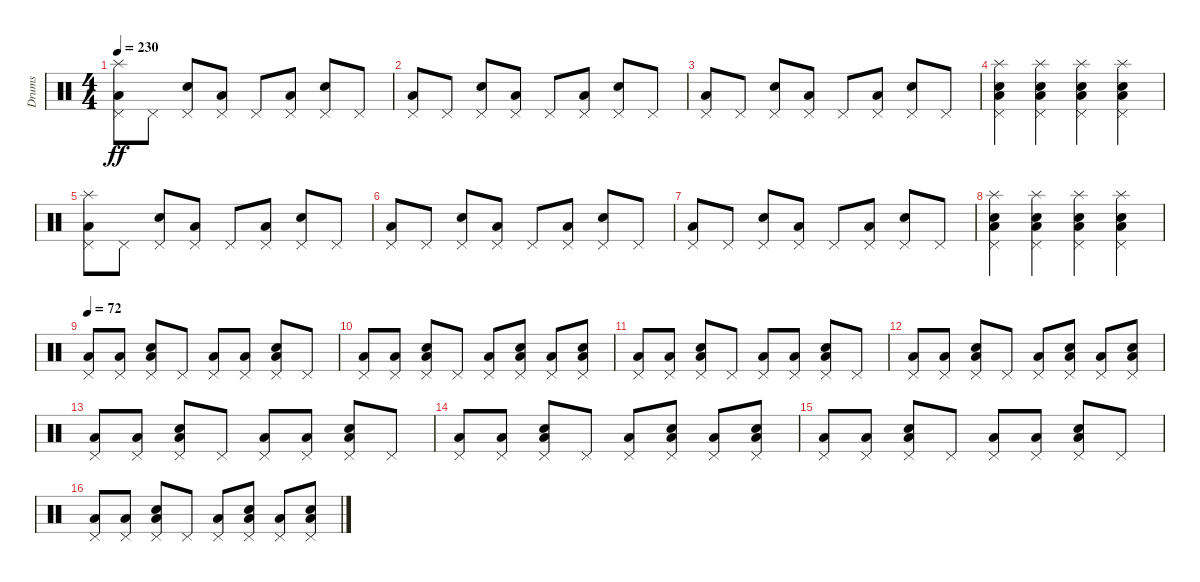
\track ("Drums" "Drums") {instrument percussion}
\staff {score}
\articulation defaults
\ts (4 4)
\tempo 230
\clef neutral
\ks c
("Low Floor Tom (hit)" "Pedal Hi-Hat (hit)" "Splash (hit)").8{dy ff} "Pedal Hi-Hat (hit)".8 ("Electric Snare (hit)" "Pedal Hi-Hat (hit)").8 ("Low Floor Tom (hit)" "Pedal Hi-Hat (hit)").8 "Pedal Hi-Hat (hit)".8 ("Low Floor Tom (hit)" "Pedal Hi-Hat (hit)").8 ("Electric Snare (hit)" "Pedal Hi-Hat (hit)").8 "Pedal Hi-Hat (hit)".8 |
("Low Floor Tom (hit)" "Pedal Hi-Hat (hit)").8 "Pedal Hi-Hat (hit)".8 ("Electric Snare (hit)" "Pedal Hi-Hat (hit)").8 ("Low Floor Tom (hit)" "Pedal Hi-Hat (hit)").8 "Pedal Hi-Hat (hit)".8 ("Low Floor Tom (hit)" "Pedal Hi-Hat (hit)").8 ("Electric Snare (hit)" "Pedal Hi-Hat (hit)").8 "Pedal Hi-Hat (hit)".8 |
("Low Floor Tom (hit)" "Pedal Hi-Hat (hit)").8 "Pedal Hi-Hat (hit)".8 ("Electric Snare (hit)" "Pedal Hi-Hat (hit)").8 ("Low Floor Tom (hit)" "Pedal Hi-Hat (hit)").8 "Pedal Hi-Hat (hit)".8 ("Low Floor Tom (hit)" "Pedal Hi-Hat (hit)").8 ("Electric Snare (hit)" "Pedal Hi-Hat (hit)").8 "Pedal Hi-Hat (hit)".8 |
("Electric Snare (hit)" "Low Floor Tom (hit)" "Pedal Hi-Hat (hit)" "Splash (hit)").4 ("Electric Snare (hit)" "Low Floor Tom (hit)" "Pedal Hi-Hat (hit)" "Splash (hit)").4 ("Electric Snare (hit)" "Low Floor Tom (hit)" "Pedal Hi-Hat (hit)" "Splash (hit)").4 ("Electric Snare (hit)" "Low Floor Tom (hit)" "Pedal Hi-Hat (hit)" "Splash (hit)").4 |
("Low Floor Tom (hit)" "Pedal Hi-Hat (hit)" "Splash (hit)").8 "Pedal Hi-Hat (hit)".8 ("Electric Snare (hit)" "Pedal Hi-Hat (hit)").8 ("Low Floor Tom (hit)" "Pedal Hi-Hat (hit)").8 "Pedal Hi-Hat (hit)".8 ("Low Floor Tom (hit)" "Pedal Hi-Hat (hit)").8 ("Electric Snare (hit)" "Pedal Hi-Hat (hit)").8 "Pedal Hi-Hat (hit)".8 |
("Low Floor Tom (hit)" "Pedal Hi-Hat (hit)").8 "Pedal Hi-Hat (hit)".8 ("Electric Snare (hit)" "Pedal Hi-Hat (hit)").8 ("Low Floor Tom (hit)" "Pedal Hi-Hat (hit)").8 "Pedal Hi-Hat (hit)".8 ("Low Floor Tom (hit)" "Pedal Hi-Hat (hit)").8 ("Electric Snare (hit)" "Pedal Hi-Hat (hit)").8 "Pedal Hi-Hat (hit)".8 |
("Low Floor Tom (hit)" "Pedal Hi-Hat (hit)").8 "Pedal Hi-Hat (hit)".8 ("Electric Snare (hit)" "Pedal Hi-Hat (hit)").8 ("Low Floor Tom (hit)" "Pedal Hi-Hat (hit)").8 "Pedal Hi-Hat (hit)".8 ("Low Floor Tom (hit)" "Pedal Hi-Hat (hit)").8 ("Electric Snare (hit)" "Pedal Hi-Hat (hit)").8 "Pedal Hi-Hat (hit)".8 |
("Electric Snare (hit)" "Low Floor Tom (hit)" "Pedal Hi-Hat (hit)" "Splash (hit)").4 ("Electric Snare (hit)" "Low Floor Tom (hit)" "Pedal Hi-Hat (hit)" "Splash (hit)").4 ("Electric Snare (hit)" "Low Floor Tom (hit)" "Pedal Hi-Hat (hit)" "Splash (hit)").4 ("Electric Snare (hit)" "Low Floor Tom (hit)" "Pedal Hi-Hat (hit)" "Splash (hit)").4 |
\tempo 72
("Low Floor Tom (hit)" "Pedal Hi-Hat (hit)").8 ("Low Floor Tom (hit)" "Pedal Hi-Hat (hit)").8 ("Electric Snare (hit)" "Low Floor Tom (hit)" "Pedal Hi-Hat (hit)").8 "Pedal Hi-Hat (hit)".8 ("Low Floor Tom (hit)" "Pedal Hi-Hat (hit)").8 ("Low Floor Tom (hit)" "Pedal Hi-Hat (hit)").8 ("Electric Snare (hit)" "Low Floor Tom (hit)" "Pedal Hi-Hat (hit)").8 "Pedal Hi-Hat (hit)".8 |
("Low Floor Tom (hit)" "Pedal Hi-Hat (hit)").8 ("Low Floor Tom (hit)" "Pedal Hi-Hat (hit)").8 ("Electric Snare (hit)" "Low Floor Tom (hit)" "Pedal Hi-Hat (hit)").8 "Pedal Hi-Hat (hit)".8 ("Low Floor Tom (hit)" "Pedal Hi-Hat (hit)").8 ("Electric Snare (hit)" "Low Floor Tom (hit)" "Pedal Hi-Hat (hit)").8 ("Low Floor Tom (hit)" "Pedal Hi-Hat (hit)").8 ("Electric Snare (hit)" "Low Floor Tom (hit)" "Pedal Hi-Hat (hit)").8 |
("Low Floor Tom (hit)" "Pedal Hi-Hat (hit)").8 ("Low Floor Tom (hit)" "Pedal Hi-Hat (hit)").8 ("Electric Snare (hit)" "Low Floor Tom (hit)" "Pedal Hi-Hat (hit)").8 "Pedal Hi-Hat (hit)".8 ("Low Floor Tom (hit)" "Pedal Hi-Hat (hit)").8 ("Low Floor Tom (hit)" "Pedal Hi-Hat (hit)").8 ("Electric Snare (hit)" "Low Floor Tom (hit)" "Pedal Hi-Hat (hit)").8 "Pedal Hi-Hat (hit)".8 |
("Low Floor Tom (hit)" "Pedal Hi-Hat (hit)").8 ("Low Floor Tom (hit)" "Pedal Hi-Hat (hit)").8 ("Electric Snare (hit)" "Low Floor Tom (hit)" "Pedal Hi-Hat (hit)").8 "Pedal Hi-Hat (hit)".8 ("Low Floor Tom (hit)" "Pedal Hi-Hat (hit)").8 ("Electric Snare (hit)" "Low Floor Tom (hit)" "Pedal Hi-Hat (hit)").8 ("Low Floor Tom (hit)" "Pedal Hi-Hat (hit)").8 ("Electric Snare (hit)" "Low Floor Tom (hit)" "Pedal Hi-Hat (hit)").8 |
("Low Floor Tom (hit)" "Pedal Hi-Hat (hit)").8 ("Low Floor Tom (hit)" "Pedal Hi-Hat (hit)").8 ("Electric Snare (hit)" "Low Floor Tom (hit)" "Pedal Hi-Hat (hit)").8 "Pedal Hi-Hat (hit)".8 ("Low Floor Tom (hit)" "Pedal Hi-Hat (hit)").8 ("Low Floor Tom (hit)" "Pedal Hi-Hat (hit)").8 ("Electric Snare (hit)" "Low Floor Tom (hit)" "Pedal Hi-Hat (hit)").8 "Pedal Hi-Hat (hit)".8 |
("Low Floor Tom (hit)" "Pedal Hi-Hat (hit)").8 ("Low Floor Tom (hit)" "Pedal Hi-Hat (hit)").8 ("Electric Snare (hit)" "Low Floor Tom (hit)" "Pedal Hi-Hat (hit)").8 "Pedal Hi-Hat (hit)".8 ("Low Floor Tom (hit)" "Pedal Hi-Hat (hit)").8 ("Electric Snare (hit)" "Low Floor Tom (hit)" "Pedal Hi-Hat (hit)").8 ("Low Floor Tom (hit)" "Pedal Hi-Hat (hit)").8 ("Electric Snare (hit)" "Low Floor Tom (hit)" "Pedal Hi-Hat (hit)").8 |
("Low Floor Tom (hit)" "Pedal Hi-Hat (hit)").8 ("Low Floor Tom (hit)" "Pedal Hi-Hat (hit)").8 ("Electric Snare (hit)" "Low Floor Tom (hit)" "Pedal Hi-Hat (hit)").8 "Pedal Hi-Hat (hit)".8 ("Low Floor Tom (hit)" "Pedal Hi-Hat (hit)").8 ("Low Floor Tom (hit)" "Pedal Hi-Hat (hit)").8 ("Electric Snare (hit)" "Low Floor Tom (hit)" "Pedal Hi-Hat (hit)").8 "Pedal Hi-Hat (hit)".8 |
("Low Floor Tom (hit)" "Pedal Hi-Hat (hit)").8 ("Low Floor Tom (hit)" "Pedal Hi-Hat (hit)").8 ("Electric Snare (hit)" "Low Floor Tom (hit)" "Pedal Hi-Hat (hit)").8 "Pedal Hi-Hat (hit)".8 ("Low Floor Tom (hit)" "Pedal Hi-Hat (hit)").8 ("Electric Snare (hit)" "Low Floor Tom (hit)" "Pedal Hi-Hat (hit)").8 ("Low Floor Tom (hit)" "Pedal Hi-Hat (hit)").8 ("Electric Snare (hit)" "Low Floor Tom (hit)" "Pedal Hi-Hat (hit)").8
